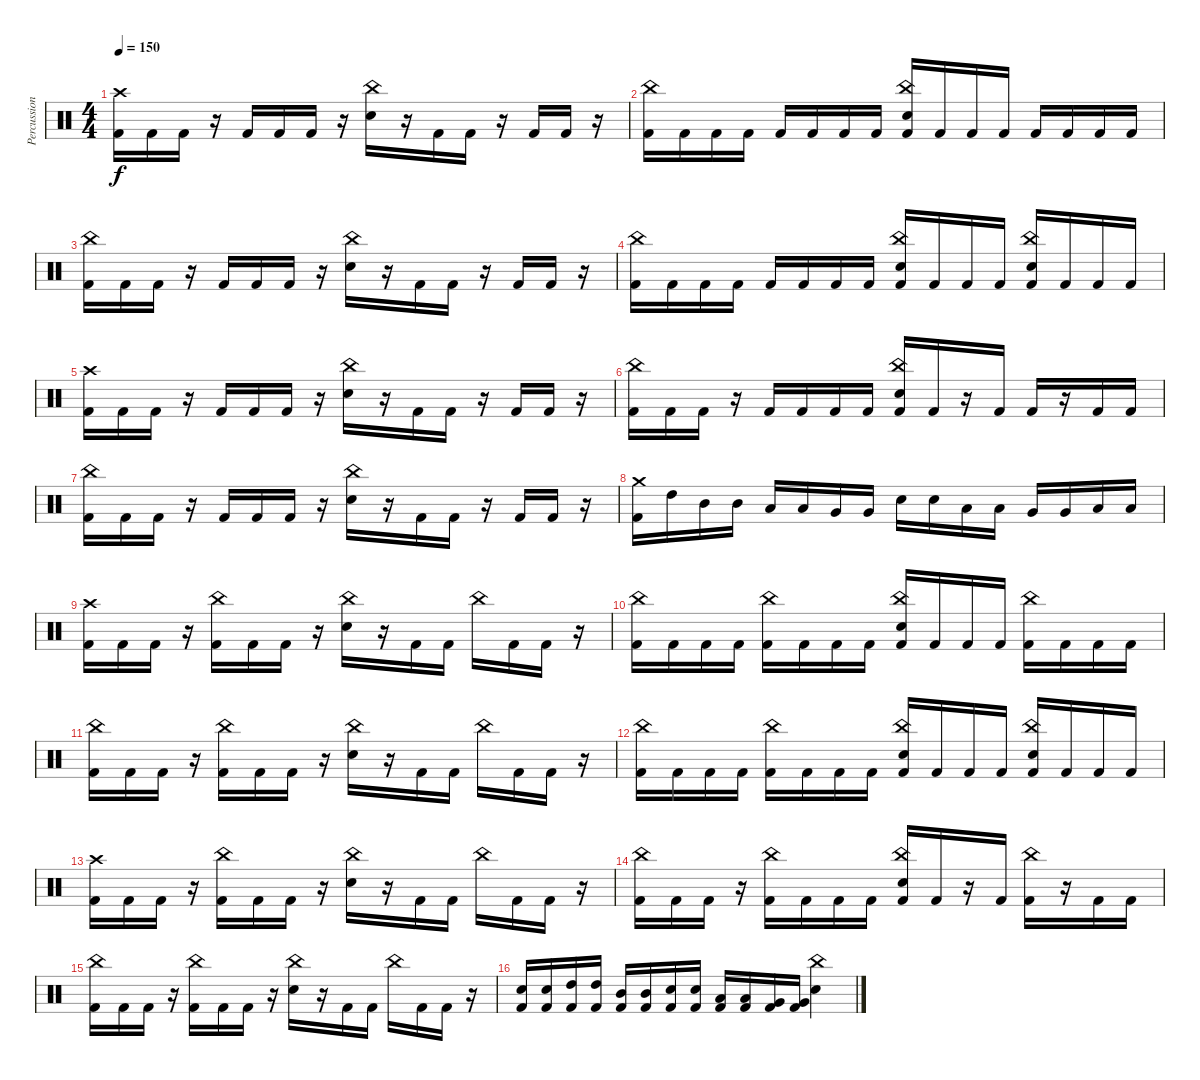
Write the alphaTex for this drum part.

\track ("Percussion" "Percussion") {instrument percussion}
\staff {score}
\articulation defaults
\ts (4 4)
\tempo 150
\clef neutral
\ks c
("Crash high (hit)" "Kick (hit) 2").16{dy f} "Kick (hit) 2".16 "Kick (hit) 2".16 r.16 "Kick (hit) 2".16 "Kick (hit) 2".16 "Kick (hit) 2".16 r.16 ("China (hit)" "Electric Snare (hit)").16 r.16 "Kick (hit) 2".16 "Kick (hit) 2".16 r.16 "Kick (hit) 2".16 "Kick (hit) 2".16 r.16 |
("China (hit)" "Kick (hit) 2").16 "Kick (hit) 2".16 "Kick (hit) 2".16 "Kick (hit) 2".16 "Kick (hit) 2".16 "Kick (hit) 2".16 "Kick (hit) 2".16 "Kick (hit) 2".16 ("China (hit)" "Electric Snare (hit)" "Kick (hit) 2").16 "Kick (hit) 2".16 "Kick (hit) 2".16 "Kick (hit) 2".16 "Kick (hit) 2".16 "Kick (hit) 2".16 "Kick (hit) 2".16 "Kick (hit) 2".16 |
("China (hit)" "Kick (hit) 2").16 "Kick (hit) 2".16 "Kick (hit) 2".16 r.16 "Kick (hit) 2".16 "Kick (hit) 2".16 "Kick (hit) 2".16 r.16 ("China (hit)" "Electric Snare (hit)").16 r.16 "Kick (hit) 2".16 "Kick (hit) 2".16 r.16 "Kick (hit) 2".16 "Kick (hit) 2".16 r.16 |
("China (hit)" "Kick (hit) 2").16 "Kick (hit) 2".16 "Kick (hit) 2".16 "Kick (hit) 2".16 "Kick (hit) 2".16 "Kick (hit) 2".16 "Kick (hit) 2".16 "Kick (hit) 2".16 ("China (hit)" "Electric Snare (hit)" "Kick (hit) 2").16 "Kick (hit) 2".16 "Kick (hit) 2".16 "Kick (hit) 2".16 ("China (hit)" "Electric Snare (hit)" "Kick (hit) 2").16 "Kick (hit) 2".16 "Kick (hit) 2".16 "Kick (hit) 2".16 |
("Crash high (hit)" "Kick (hit) 2").16 "Kick (hit) 2".16 "Kick (hit) 2".16 r.16 "Kick (hit) 2".16 "Kick (hit) 2".16 "Kick (hit) 2".16 r.16 ("China (hit)" "Electric Snare (hit)").16 r.16 "Kick (hit) 2".16 "Kick (hit) 2".16 r.16 "Kick (hit) 2".16 "Kick (hit) 2".16 r.16 |
("China (hit)" "Kick (hit) 2").16 "Kick (hit) 2".16 "Kick (hit) 2".16 r.16 "Kick (hit) 2".16 "Kick (hit) 2".16 "Kick (hit) 2".16 "Kick (hit) 2".16 ("China (hit)" "Electric Snare (hit)" "Kick (hit) 2").16 "Kick (hit) 2".16 r.16 "Kick (hit) 2".16 "Kick (hit) 2".16 r.16 "Kick (hit) 2".16 "Kick (hit) 2".16 |
("China (hit)" "Kick (hit) 2").16 "Kick (hit) 2".16 "Kick (hit) 2".16 r.16 "Kick (hit) 2".16 "Kick (hit) 2".16 "Kick (hit) 2".16 r.16 ("China (hit)" "Electric Snare (hit)").16 r.16 "Kick (hit) 2".16 "Kick (hit) 2".16 r.16 "Kick (hit) 2".16 "Kick (hit) 2".16 r.16 |
("Crash medium (hit)" "Kick (hit) 2").16 "High Tom (hit)".16 "Mid Tom (hit)".16 "Mid Tom (hit)".16 "Low Tom (hit)".16 "Low Tom (hit)".16 "Very Low Tom (hit)".16 "Very Low Tom (hit)".16 "Electric Snare (hit)".16 "Electric Snare (hit)".16 "Low Tom (hit)".16 "Low Tom (hit)".16 "Very Low Tom (hit)".16 "Very Low Tom (hit)".16 "Low Floor Tom (hit)".16 "Low Floor Tom (hit)".16 |
("Crash high (hit)" "Kick (hit) 2").16 "Kick (hit) 2".16 "Kick (hit) 2".16 r.16 ("China (hit)" "Kick (hit) 2").16 "Kick (hit) 2".16 "Kick (hit) 2".16 r.16 ("China (hit)" "Electric Snare (hit)").16 r.16 "Kick (hit) 2".16 "Kick (hit) 2".16 "China (hit)".16 "Kick (hit) 2".16 "Kick (hit) 2".16 r.16 |
("China (hit)" "Kick (hit) 2").16 "Kick (hit) 2".16 "Kick (hit) 2".16 "Kick (hit) 2".16 ("China (hit)" "Kick (hit) 2").16 "Kick (hit) 2".16 "Kick (hit) 2".16 "Kick (hit) 2".16 ("China (hit)" "Electric Snare (hit)" "Kick (hit) 2").16 "Kick (hit) 2".16 "Kick (hit) 2".16 "Kick (hit) 2".16 ("China (hit)" "Kick (hit) 2").16 "Kick (hit) 2".16 "Kick (hit) 2".16 "Kick (hit) 2".16 |
("China (hit)" "Kick (hit) 2").16 "Kick (hit) 2".16 "Kick (hit) 2".16 r.16 ("China (hit)" "Kick (hit) 2").16 "Kick (hit) 2".16 "Kick (hit) 2".16 r.16 ("China (hit)" "Electric Snare (hit)").16 r.16 "Kick (hit) 2".16 "Kick (hit) 2".16 "China (hit)".16 "Kick (hit) 2".16 "Kick (hit) 2".16 r.16 |
("China (hit)" "Kick (hit) 2").16 "Kick (hit) 2".16 "Kick (hit) 2".16 "Kick (hit) 2".16 ("China (hit)" "Kick (hit) 2").16 "Kick (hit) 2".16 "Kick (hit) 2".16 "Kick (hit) 2".16 ("China (hit)" "Electric Snare (hit)" "Kick (hit) 2").16 "Kick (hit) 2".16 "Kick (hit) 2".16 "Kick (hit) 2".16 ("China (hit)" "Electric Snare (hit)" "Kick (hit) 2").16 "Kick (hit) 2".16 "Kick (hit) 2".16 "Kick (hit) 2".16 |
("Crash high (hit)" "Kick (hit) 2").16 "Kick (hit) 2".16 "Kick (hit) 2".16 r.16 ("China (hit)" "Kick (hit) 2").16 "Kick (hit) 2".16 "Kick (hit) 2".16 r.16 ("China (hit)" "Electric Snare (hit)").16 r.16 "Kick (hit) 2".16 "Kick (hit) 2".16 "China (hit)".16 "Kick (hit) 2".16 "Kick (hit) 2".16 r.16 |
("China (hit)" "Kick (hit) 2").16 "Kick (hit) 2".16 "Kick (hit) 2".16 r.16 ("China (hit)" "Kick (hit) 2").16 "Kick (hit) 2".16 "Kick (hit) 2".16 "Kick (hit) 2".16 ("China (hit)" "Electric Snare (hit)" "Kick (hit) 2").16 "Kick (hit) 2".16 r.16 "Kick (hit) 2".16 ("China (hit)" "Kick (hit) 2").16 r.16 "Kick (hit) 2".16 "Kick (hit) 2".16 |
("China (hit)" "Kick (hit) 2").16 "Kick (hit) 2".16 "Kick (hit) 2".16 r.16 ("China (hit)" "Kick (hit) 2").16 "Kick (hit) 2".16 "Kick (hit) 2".16 r.16 ("China (hit)" "Electric Snare (hit)").16 r.16 "Kick (hit) 2".16 "Kick (hit) 2".16 "China (hit)".16 "Kick (hit) 2".16 "Kick (hit) 2".16 r.16 |
("Electric Snare (hit)" "Kick (hit) 2").16 ("Electric Snare (hit)" "Kick (hit) 2").16 ("High Tom (hit)" "Kick (hit) 2").16 ("High Tom (hit)" "Kick (hit) 2").16 ("Mid Tom (hit)" "Kick (hit) 2").16 ("Mid Tom (hit)" "Kick (hit) 2").16 ("Electric Snare (hit)" "Kick (hit) 2").16 ("Electric Snare (hit)" "Kick (hit) 2").16 ("Low Tom (hit)" "Kick (hit) 2").16 ("Low Tom (hit)" "Kick (hit) 2").16 ("Very Low Tom (hit)" "Kick (hit) 2").16 ("Very Low Tom (hit)" "Kick (hit) 2").16 ("China (hit)" "Electric Snare (hit)").4
